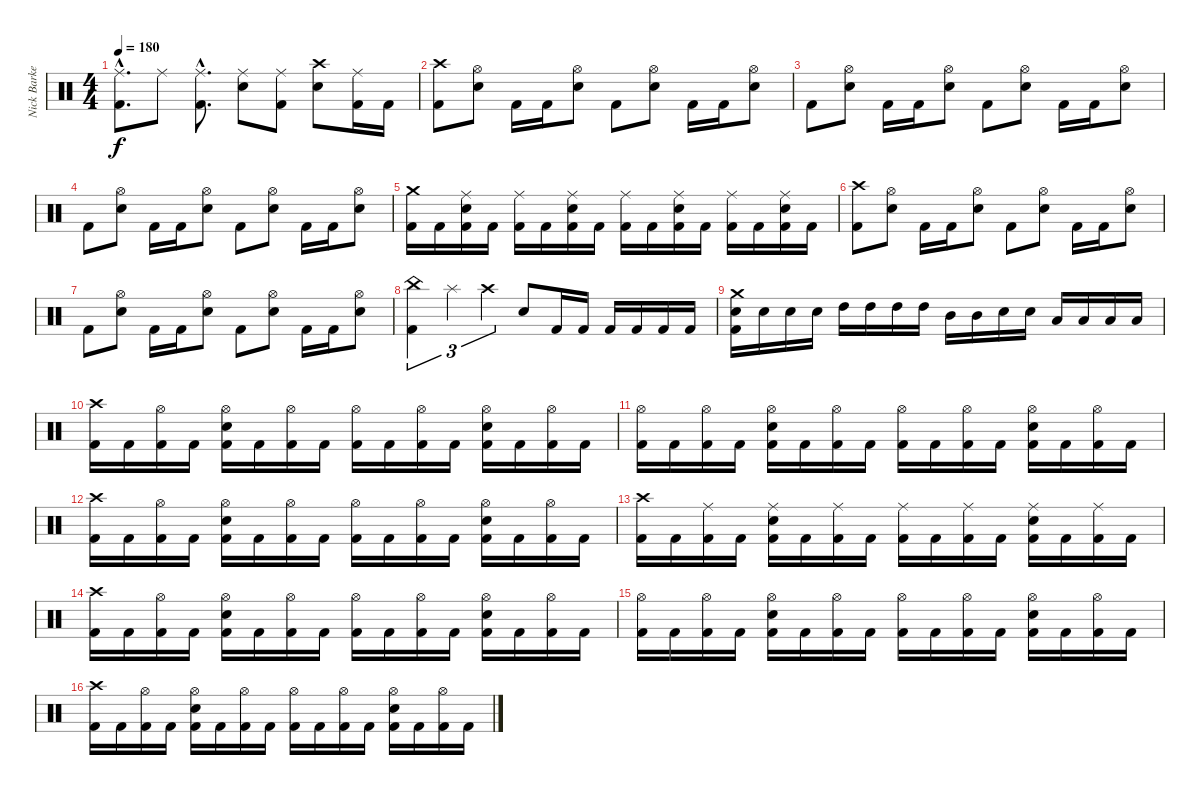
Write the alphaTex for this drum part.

\track ("Nick Barker" "Nick Barke") {instrument percussion}
\staff {score}
\articulation defaults
\ts (4 4)
\tempo 180
\clef neutral
\ks c
("Ride (middle)"{hac} "Kick (hit) 2"{hac}).8{d dy f} "Ride (middle)".8 ("Ride (middle)"{hac} "Kick (hit) 2"{hac}).8{d} ("Ride (middle)" "Electric Snare (hit)").8 ("Ride (middle)" "Kick (hit) 2").8 ("Crash high (hit)" "Electric Snare (hit)").8 ("Ride (middle)" "Kick (hit) 2").16 "Kick (hit) 2".16 |
("Crash high (hit)" "Kick (hit) 2").8 ("Hi-Hat (open)" "Electric Snare (hit)").8 "Kick (hit) 2".16 "Kick (hit) 2".16 ("Hi-Hat (open)" "Electric Snare (hit)").8 "Kick (hit) 2".8 ("Hi-Hat (open)" "Electric Snare (hit)").8 "Kick (hit) 2".16 "Kick (hit) 2".16 ("Hi-Hat (open)" "Electric Snare (hit)").8 |
"Kick (hit) 2".8 ("Hi-Hat (open)" "Electric Snare (hit)").8 "Kick (hit) 2".16 "Kick (hit) 2".16 ("Hi-Hat (open)" "Electric Snare (hit)").8 "Kick (hit) 2".8 ("Hi-Hat (open)" "Electric Snare (hit)").8 "Kick (hit) 2".16 "Kick (hit) 2".16 ("Hi-Hat (open)" "Electric Snare (hit)").8 |
"Kick (hit) 2".8 ("Hi-Hat (open)" "Electric Snare (hit)").8 "Kick (hit) 2".16 "Kick (hit) 2".16 ("Hi-Hat (open)" "Electric Snare (hit)").8 "Kick (hit) 2".8 ("Hi-Hat (open)" "Electric Snare (hit)").8 "Kick (hit) 2".16 "Kick (hit) 2".16 ("Hi-Hat (open)" "Electric Snare (hit)").8 |
("Crash medium (hit)" "Kick (hit) 2").16 "Kick (hit) 2".16 ("Ride (middle)" "Electric Snare (hit)" "Kick (hit) 2").16 "Kick (hit) 2".16 ("Ride (middle)" "Kick (hit) 2").16 "Kick (hit) 2".16 ("Ride (middle)" "Electric Snare (hit)" "Kick (hit) 2").16 "Kick (hit) 2".16 ("Ride (middle)" "Kick (hit) 2").16 "Kick (hit) 2".16 ("Ride (middle)" "Electric Snare (hit)" "Kick (hit) 2").16 "Kick (hit) 2".16 ("Ride (middle)" "Kick (hit) 2").16 "Kick (hit) 2".16 ("Ride (middle)" "Electric Snare (hit)" "Kick (hit) 2").16 "Kick (hit) 2".16 |
("Crash high (hit)" "Kick (hit) 2").8 ("Hi-Hat (open)" "Electric Snare (hit)").8 "Kick (hit) 2".16 "Kick (hit) 2".16 ("Hi-Hat (open)" "Electric Snare (hit)").8 "Kick (hit) 2".8 ("Hi-Hat (open)" "Electric Snare (hit)").8 "Kick (hit) 2".16 "Kick (hit) 2".16 ("Hi-Hat (open)" "Electric Snare (hit)").8 |
"Kick (hit) 2".8 ("Hi-Hat (open)" "Electric Snare (hit)").8 "Kick (hit) 2".16 "Kick (hit) 2".16 ("Hi-Hat (open)" "Electric Snare (hit)").8 "Kick (hit) 2".8 ("Hi-Hat (open)" "Electric Snare (hit)").8 "Kick (hit) 2".16 "Kick (hit) 2".16 ("Hi-Hat (open)" "Electric Snare (hit)").8 |
("China (hit)" "Kick (hit) 2").4{tu (3 2)} "Splash (hit)".4{tu (3 2)} "Crash high (hit)".4{tu (3 2)} "Electric Snare (hit)".8 "Kick (hit) 2".16 "Kick (hit) 2".16 "Kick (hit) 2".16 "Kick (hit) 2".16 "Kick (hit) 2".16 "Kick (hit) 2".16 |
("Crash medium (hit)" "Electric Snare (hit)" "Kick (hit) 2").16 "Electric Snare (hit)".16 "Electric Snare (hit)".16 "Electric Snare (hit)".16 "High Tom (hit)".16 "High Tom (hit)".16 "High Tom (hit)".16 "High Tom (hit)".16 "Mid Tom (hit)".16 "Mid Tom (hit)".16 "Electric Snare (hit)".16 "Electric Snare (hit)".16 "Low Tom (hit)".16 "Low Tom (hit)".16 "Low Tom (hit)".16 "Low Tom (hit)".16 |
\section ("" "")
("Crash high (hit)" "Kick (hit) 2").16 "Kick (hit) 2".16 ("Hi-Hat (open)" "Kick (hit) 2").16 "Kick (hit) 2".16 ("Hi-Hat (open)" "Electric Snare (hit)" "Kick (hit) 2").16 "Kick (hit) 2".16 ("Hi-Hat (open)" "Kick (hit) 2").16 "Kick (hit) 2".16 ("Hi-Hat (open)" "Kick (hit) 2").16 "Kick (hit) 2".16 ("Hi-Hat (open)" "Kick (hit) 2").16 "Kick (hit) 2".16 ("Hi-Hat (open)" "Electric Snare (hit)" "Kick (hit) 2").16 "Kick (hit) 2".16 ("Hi-Hat (open)" "Kick (hit) 2").16 "Kick (hit) 2".16 |
("Hi-Hat (open)" "Kick (hit) 2").16 "Kick (hit) 2".16 ("Hi-Hat (open)" "Kick (hit) 2").16 "Kick (hit) 2".16 ("Hi-Hat (open)" "Electric Snare (hit)" "Kick (hit) 2").16 "Kick (hit) 2".16 ("Hi-Hat (open)" "Kick (hit) 2").16 "Kick (hit) 2".16 ("Hi-Hat (open)" "Kick (hit) 2").16 "Kick (hit) 2".16 ("Hi-Hat (open)" "Kick (hit) 2").16 "Kick (hit) 2".16 ("Hi-Hat (open)" "Electric Snare (hit)" "Kick (hit) 2").16 "Kick (hit) 2".16 ("Hi-Hat (open)" "Kick (hit) 2").16 "Kick (hit) 2".16 |
("Crash high (hit)" "Kick (hit) 2").16 "Kick (hit) 2".16 ("Hi-Hat (open)" "Kick (hit) 2").16 "Kick (hit) 2".16 ("Hi-Hat (open)" "Electric Snare (hit)" "Kick (hit) 2").16 "Kick (hit) 2".16 ("Hi-Hat (open)" "Kick (hit) 2").16 "Kick (hit) 2".16 ("Hi-Hat (open)" "Kick (hit) 2").16 "Kick (hit) 2".16 ("Hi-Hat (open)" "Kick (hit) 2").16 "Kick (hit) 2".16 ("Hi-Hat (open)" "Electric Snare (hit)" "Kick (hit) 2").16 "Kick (hit) 2".16 ("Hi-Hat (open)" "Kick (hit) 2").16 "Kick (hit) 2".16 |
("Crash high (hit)" "Kick (hit) 2").16 "Kick (hit) 2".16 ("Ride (middle)" "Kick (hit) 2").16 "Kick (hit) 2".16 ("Ride (middle)" "Electric Snare (hit)" "Kick (hit) 2").16 "Kick (hit) 2".16 ("Ride (middle)" "Kick (hit) 2").16 "Kick (hit) 2".16 ("Ride (middle)" "Kick (hit) 2").16 "Kick (hit) 2".16 ("Ride (middle)" "Kick (hit) 2").16 "Kick (hit) 2".16 ("Ride (middle)" "Electric Snare (hit)" "Kick (hit) 2").16 "Kick (hit) 2".16 ("Ride (middle)" "Kick (hit) 2").16 "Kick (hit) 2".16 |
("Crash high (hit)" "Kick (hit) 2").16 "Kick (hit) 2".16 ("Hi-Hat (open)" "Kick (hit) 2").16 "Kick (hit) 2".16 ("Hi-Hat (open)" "Electric Snare (hit)" "Kick (hit) 2").16 "Kick (hit) 2".16 ("Hi-Hat (open)" "Kick (hit) 2").16 "Kick (hit) 2".16 ("Hi-Hat (open)" "Kick (hit) 2").16 "Kick (hit) 2".16 ("Hi-Hat (open)" "Kick (hit) 2").16 "Kick (hit) 2".16 ("Hi-Hat (open)" "Electric Snare (hit)" "Kick (hit) 2").16 "Kick (hit) 2".16 ("Hi-Hat (open)" "Kick (hit) 2").16 "Kick (hit) 2".16 |
("Hi-Hat (open)" "Kick (hit) 2").16 "Kick (hit) 2".16 ("Hi-Hat (open)" "Kick (hit) 2").16 "Kick (hit) 2".16 ("Hi-Hat (open)" "Electric Snare (hit)" "Kick (hit) 2").16 "Kick (hit) 2".16 ("Hi-Hat (open)" "Kick (hit) 2").16 "Kick (hit) 2".16 ("Hi-Hat (open)" "Kick (hit) 2").16 "Kick (hit) 2".16 ("Hi-Hat (open)" "Kick (hit) 2").16 "Kick (hit) 2".16 ("Hi-Hat (open)" "Electric Snare (hit)" "Kick (hit) 2").16 "Kick (hit) 2".16 ("Hi-Hat (open)" "Kick (hit) 2").16 "Kick (hit) 2".16 |
("Crash high (hit)" "Kick (hit) 2").16 "Kick (hit) 2".16 ("Hi-Hat (open)" "Kick (hit) 2").16 "Kick (hit) 2".16 ("Hi-Hat (open)" "Electric Snare (hit)" "Kick (hit) 2").16 "Kick (hit) 2".16 ("Hi-Hat (open)" "Kick (hit) 2").16 "Kick (hit) 2".16 ("Hi-Hat (open)" "Kick (hit) 2").16 "Kick (hit) 2".16 ("Hi-Hat (open)" "Kick (hit) 2").16 "Kick (hit) 2".16 ("Hi-Hat (open)" "Electric Snare (hit)" "Kick (hit) 2").16 "Kick (hit) 2".16 ("Hi-Hat (open)" "Kick (hit) 2").16 "Kick (hit) 2".16
